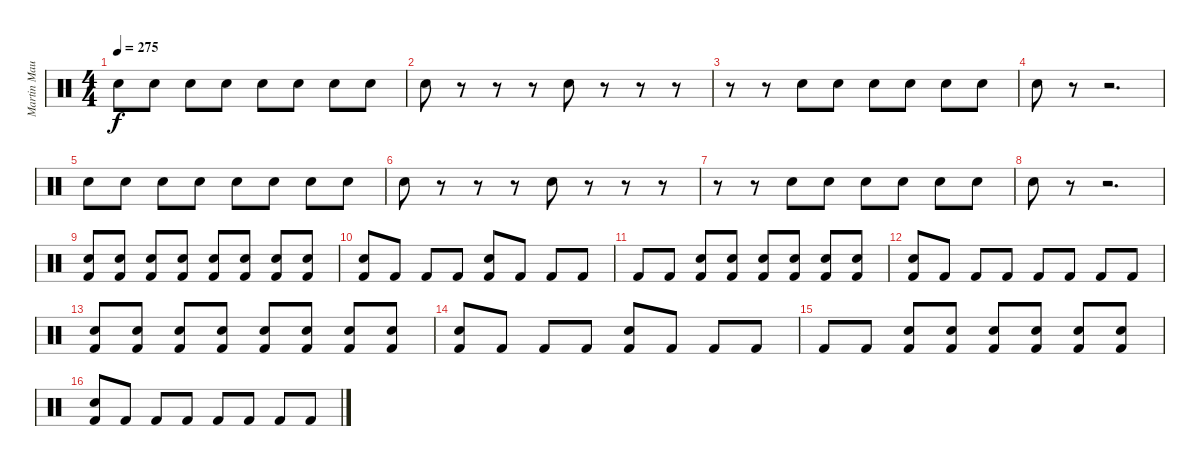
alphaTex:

\track ("Martin Maurais " "Martin Mau") {instrument percussion}
\staff {score}
\articulation defaults
\ts (4 4)
\tempo 275
\clef neutral
\ks c "Snare (hit) 2".8{dy f} "Snare (hit) 2".8 "Snare (hit) 2".8 "Snare (hit) 2".8 "Snare (hit) 2".8 "Snare (hit) 2".8 "Snare (hit) 2".8 "Snare (hit) 2".8
|
"Snare (hit) 2".8 r.8 r.8 r.8 "Snare (hit) 2".8 r.8 r.8 r.8 |
r.8 r.8 "Snare (hit) 2".8 "Snare (hit) 2".8 "Snare (hit) 2".8 "Snare (hit) 2".8 "Snare (hit) 2".8 "Snare (hit) 2".8 |
"Snare (hit) 2".8 r.8 r.2{d} |
"Snare (hit) 2".8 "Snare (hit) 2".8 "Snare (hit) 2".8 "Snare (hit) 2".8 "Snare (hit) 2".8 "Snare (hit) 2".8 "Snare (hit) 2".8 "Snare (hit) 2".8 |
"Snare (hit) 2".8 r.8 r.8 r.8 "Snare (hit) 2".8 r.8 r.8 r.8 |
r.8 r.8 "Snare (hit) 2".8 "Snare (hit) 2".8 "Snare (hit) 2".8 "Snare (hit) 2".8 "Snare (hit) 2".8 "Snare (hit) 2".8 |
"Snare (hit) 2".8 r.8 r.2{d} |
("Snare (hit) 2" "Kick (hit) 2").8 ("Snare (hit) 2" "Kick (hit) 2").8 ("Snare (hit) 2" "Kick (hit) 2").8 ("Snare (hit) 2" "Kick (hit) 2").8 ("Snare (hit) 2" "Kick (hit) 2").8 ("Snare (hit) 2" "Kick (hit) 2").8 ("Snare (hit) 2" "Kick (hit) 2").8 ("Snare (hit) 2" "Kick (hit) 2").8 |
("Snare (hit) 2" "Kick (hit) 2").8 "Kick (hit) 2".8 "Kick (hit) 2".8 "Kick (hit) 2".8 ("Snare (hit) 2" "Kick (hit) 2").8 "Kick (hit) 2".8 "Kick (hit) 2".8 "Kick (hit) 2".8 |
"Kick (hit) 2".8 "Kick (hit) 2".8 ("Snare (hit) 2" "Kick (hit) 2").8 ("Snare (hit) 2" "Kick (hit) 2").8 ("Snare (hit) 2" "Kick (hit) 2").8 ("Snare (hit) 2" "Kick (hit) 2").8 ("Snare (hit) 2" "Kick (hit) 2").8 ("Snare (hit) 2" "Kick (hit) 2").8 |
("Snare (hit) 2" "Kick (hit) 2").8 "Kick (hit) 2".8 "Kick (hit) 2".8 "Kick (hit) 2".8 "Kick (hit) 2".8 "Kick (hit) 2".8 "Kick (hit) 2".8 "Kick (hit) 2".8 |
("Snare (hit) 2" "Kick (hit) 2").8 ("Snare (hit) 2" "Kick (hit) 2").8 ("Snare (hit) 2" "Kick (hit) 2").8 ("Snare (hit) 2" "Kick (hit) 2").8 ("Snare (hit) 2" "Kick (hit) 2").8 ("Snare (hit) 2" "Kick (hit) 2").8 ("Snare (hit) 2" "Kick (hit) 2").8 ("Snare (hit) 2" "Kick (hit) 2").8 |
("Snare (hit) 2" "Kick (hit) 2").8 "Kick (hit) 2".8 "Kick (hit) 2".8 "Kick (hit) 2".8 ("Snare (hit) 2" "Kick (hit) 2").8 "Kick (hit) 2".8 "Kick (hit) 2".8 "Kick (hit) 2".8 |
"Kick (hit) 2".8 "Kick (hit) 2".8 ("Snare (hit) 2" "Kick (hit) 2").8 ("Snare (hit) 2" "Kick (hit) 2").8 ("Snare (hit) 2" "Kick (hit) 2").8 ("Snare (hit) 2" "Kick (hit) 2").8 ("Snare (hit) 2" "Kick (hit) 2").8 ("Snare (hit) 2" "Kick (hit) 2").8 |
("Snare (hit) 2" "Kick (hit) 2").8 "Kick (hit) 2".8 "Kick (hit) 2".8 "Kick (hit) 2".8 "Kick (hit) 2".8 "Kick (hit) 2".8 "Kick (hit) 2".8 "Kick (hit) 2".8
